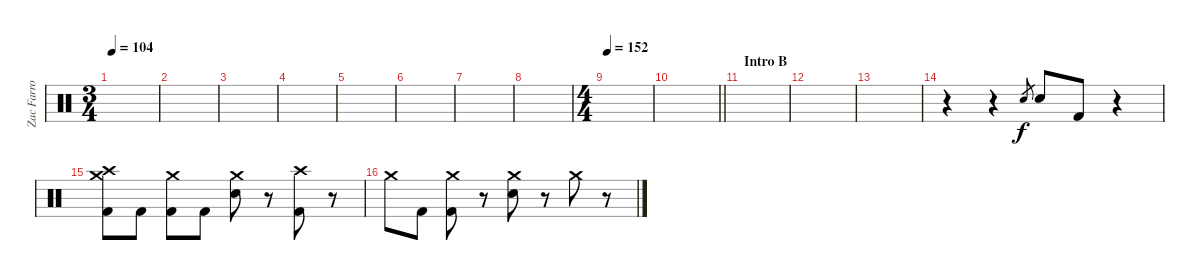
\track ("Zac Farro - Drums" "Zac Farro ") {instrument percussion}
\staff {score}
\articulation defaults
\ts (3 4)
\tempo 104
\clef neutral
\ks c
|
|
|
|
|
|
|
|
\ts (4 4)
\tempo 152
|
\barLineRight lightlight
|
\section ("" "Intro B")
|
|
|
r.4 r.4 "Electric Snare (hit)".8{gr} "Electric Snare (hit)".8 "Kick (hit) 2".8 r.4 |
("Crash high (hit)" "Crash medium (hit)" "Kick (hit) 2").8 "Kick (hit) 2".8 ("Crash medium (hit)" "Kick (hit) 2").8 "Kick (hit) 2".8 ("Crash medium (hit)" "Electric Snare (hit)").8 r.8 ("Crash high (hit)" "Kick (hit) 2").8 r.8 |
"Crash medium (hit)".8 "Kick (hit) 2".8 ("Crash medium (hit)" "Kick (hit) 2").8 r.8 ("Crash medium (hit)" "Electric Snare (hit)").8 r.8 "Crash medium (hit)".8 r.8
